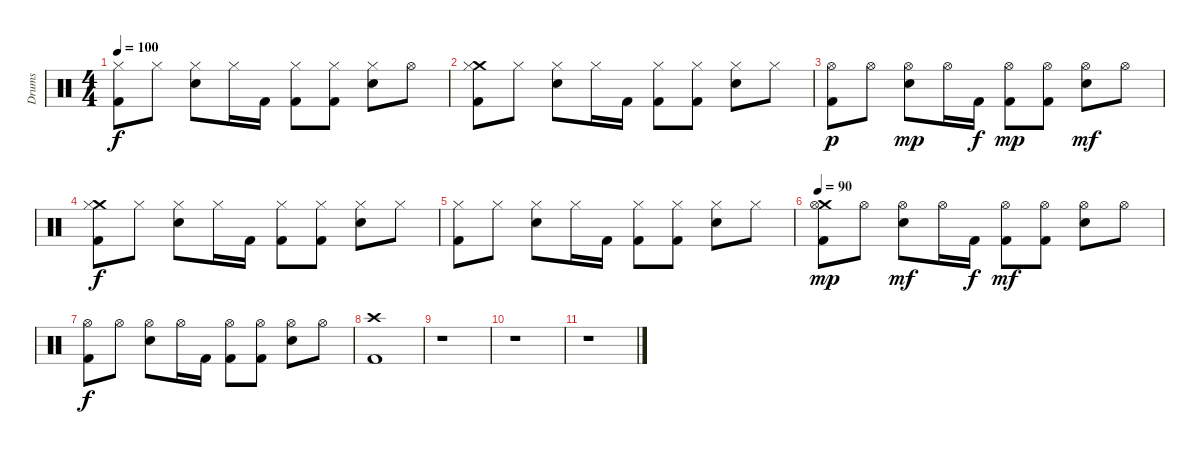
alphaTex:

\track ("Drums" "Drums") {instrument percussion}
\staff {score}
\articulation defaults
\ts (4 4)
\tempo 100
\clef neutral
\ks c
("Hi-Hat (closed)" "Kick (hit) 2").8{dy f} "Hi-Hat (closed)".8 ("Hi-Hat (closed)" "Electric Snare (hit)").8 "Hi-Hat (closed)".16 "Kick (hit) 2".16 ("Hi-Hat (closed)" "Kick (hit) 2").8 ("Hi-Hat (closed)" "Kick (hit) 2").8 ("Hi-Hat (closed)" "Electric Snare (hit)").8 "Hi-Hat (open)".8 |
("Crash medium (hit)" "Hi-Hat (closed)" "Kick (hit) 2").8 "Hi-Hat (closed)".8 ("Hi-Hat (closed)" "Electric Snare (hit)").8 "Hi-Hat (closed)".16 "Kick (hit) 2".16 ("Hi-Hat (closed)" "Kick (hit) 2").8 ("Hi-Hat (closed)" "Kick (hit) 2").8 ("Hi-Hat (closed)" "Electric Snare (hit)").8 "Hi-Hat (closed)".8 |
("Hi-Hat (open)" "Kick (hit) 2").8{dy p} "Hi-Hat (open)".8 ("Hi-Hat (open)" "Electric Snare (hit)").8{dy mp} "Hi-Hat (open)".16 "Kick (hit) 2".16{dy f} ("Hi-Hat (open)" "Kick (hit) 2").8{dy mp} ("Hi-Hat (open)" "Kick (hit) 2").8 ("Hi-Hat (open)" "Electric Snare (hit)").8{dy mf} "Hi-Hat (open)".8 |
("Crash medium (hit)" "Hi-Hat (closed)" "Kick (hit) 2").8{dy f} "Hi-Hat (closed)".8 ("Hi-Hat (closed)" "Electric Snare (hit)").8 "Hi-Hat (closed)".16 "Kick (hit) 2".16 ("Hi-Hat (closed)" "Kick (hit) 2").8 ("Hi-Hat (closed)" "Kick (hit) 2").8 ("Hi-Hat (closed)" "Electric Snare (hit)").8 "Hi-Hat (closed)".8 |
("Hi-Hat (closed)" "Kick (hit) 2").8 "Hi-Hat (closed)".8 ("Hi-Hat (closed)" "Electric Snare (hit)").8 "Hi-Hat (closed)".16 "Kick (hit) 2".16 ("Hi-Hat (closed)" "Kick (hit) 2").8 ("Hi-Hat (closed)" "Kick (hit) 2").8 ("Hi-Hat (closed)" "Electric Snare (hit)").8 "Hi-Hat (closed)".8 |
\tempo 90
("Crash medium (hit)" "Hi-Hat (open)" "Kick (hit) 2").8{dy mp} "Hi-Hat (open)".8 ("Hi-Hat (open)" "Electric Snare (hit)").8{dy mf} "Hi-Hat (open)".16 "Kick (hit) 2".16{dy f} ("Hi-Hat (open)" "Kick (hit) 2").8{dy mf} ("Hi-Hat (open)" "Kick (hit) 2").8 ("Hi-Hat (open)" "Electric Snare (hit)").8 "Hi-Hat (open)".8 |
("Hi-Hat (open)" "Kick (hit) 2").8{dy f} "Hi-Hat (open)".8 ("Hi-Hat (open)" "Electric Snare (hit)").8 "Hi-Hat (open)".16 "Kick (hit) 2".16 ("Hi-Hat (open)" "Kick (hit) 2").8 ("Hi-Hat (open)" "Kick (hit) 2").8 ("Hi-Hat (open)" "Electric Snare (hit)").8 "Hi-Hat (open)".8 |
("Crash high (hit)" "Kick (hit) 2").1 |
r.1 |
r.1 |
r.1
